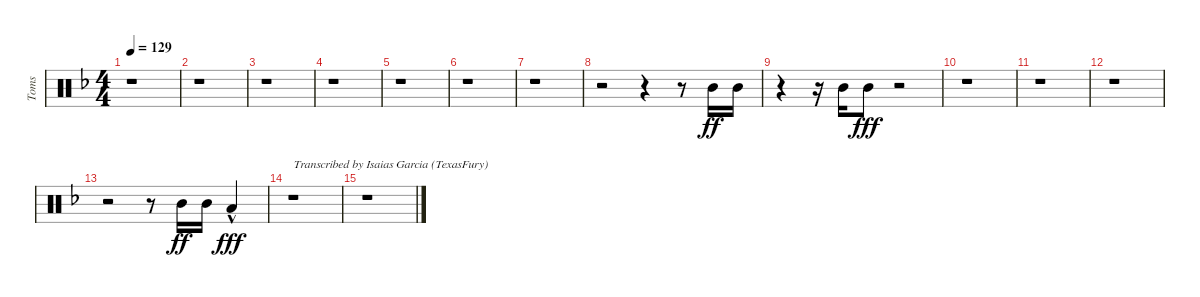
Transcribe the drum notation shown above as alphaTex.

\track ("Toms" "Toms") {instrument percussion}
\staff {score}
\articulation defaults
\ts (4 4)
\tempo 129
\clef neutral
\ks dminor
r.1{dy fff} |
r.1 |
r.1 |
r.1 |
r.1 |
r.1 |
r.1 |
r.2 r.4 r.8{balance 10} "Mid Tom (hit)".16{dy ff} "Mid Tom (hit)".16 |
r.4 r.16 "Mid Tom (hit)".16 "Mid Tom (hit)".8{dy fff} r.2 |
r.1 |
r.1 |
r.1 |
r.2 r.8 "Mid Tom (hit)".16{dy ff} "Mid Tom (hit)".16 "Low Tom (hit)"{hac}.4{dy fff balance 8} |
r.1{txt "Transcribed by Isaias Garcia (TexasFury)"} |
r.1
